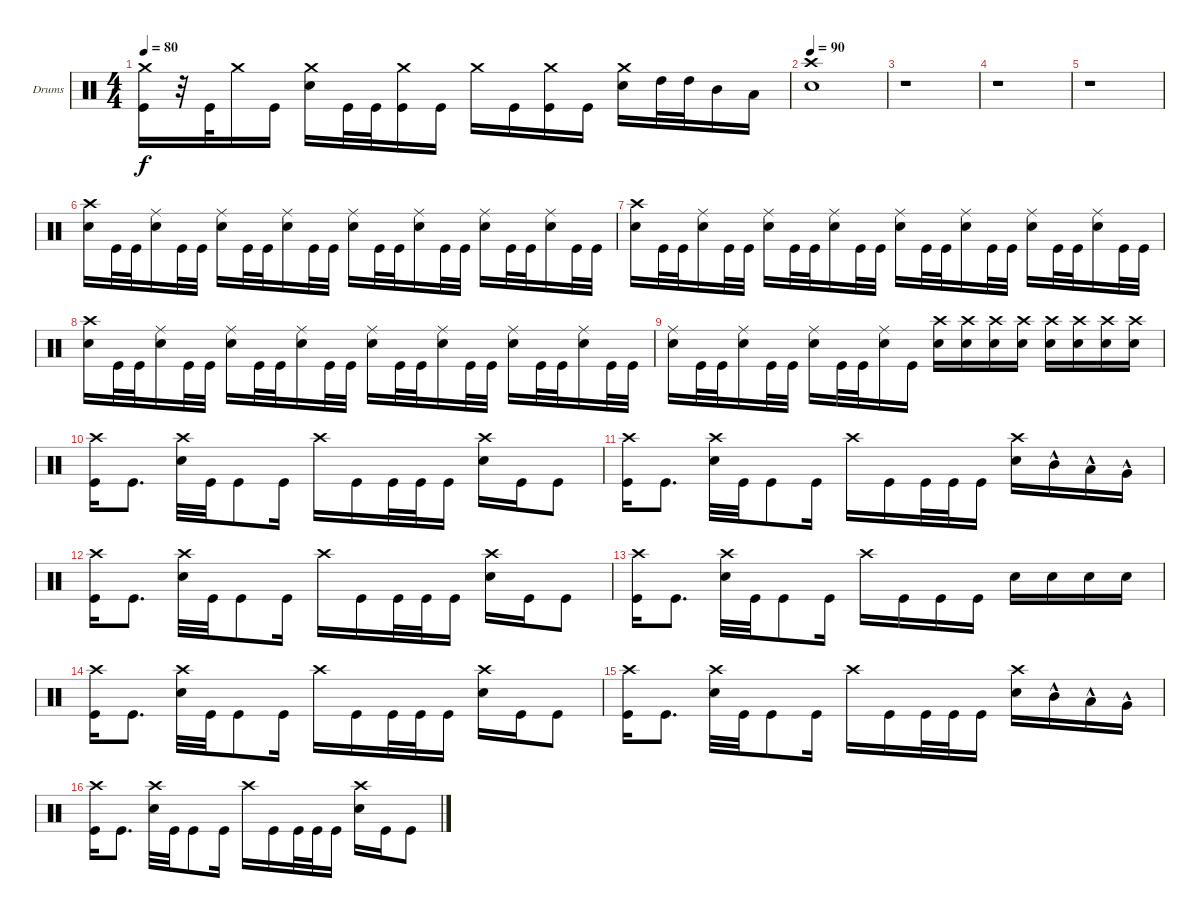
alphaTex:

\bracketExtendMode groupsimilarinstruments
\firstSystemTrackNameOrientation horizontal
\otherSystemsTrackNameOrientation horizontal
\track ("Emile Bardou" "Drums") {instrument percussion}
\staff {score}
\articulation defaults
\ts (4 4)
\tempo 80
\clef neutral
\scale
0.333333
\ks c
("Crash medium (hit)" "Kick (hit)").16{dy f} r.32 "Kick (hit)".32 "Crash medium (hit)".16 "Kick (hit)".16 ("Crash medium (hit)" "Snare (hit) 2").16 "Kick (hit)".32 "Kick (hit)".32 ("Crash medium (hit)" "Kick (hit)").16 "Kick (hit)".16 "Crash medium (hit)".16 "Kick (hit)".16 ("Crash medium (hit)" "Kick (hit)").16 "Kick (hit)".16 ("Crash medium (hit)" "Snare (hit) 2").16 "High Tom (hit)".32 "High Tom (hit)".32 "Mid Tom (hit)".16 "Low Tom (hit)".16 |
\tempo 90
\scale
0.333333 ("Snare (hit) 2" "Crash high (hit)").1 |
\scale
0.333333 r.1 |
\scale
0.333333 r.1 |
\scale
0.333333 r.1 |
\scale
0.333333 ("Crash high (hit)" "Snare (hit) 2").16 "Kick (hit)".32 "Kick (hit)".32 ("Snare (hit) 2" "Ride (middle)").16 "Kick (hit)".32 "Kick (hit)".32 ("Snare (hit) 2" "Ride (middle)").16 "Kick (hit)".32 "Kick (hit)".32 ("Snare (hit) 2" "Ride (middle)").16 "Kick (hit)".32 "Kick (hit)".32 ("Snare (hit) 2" "Ride (middle)").16 "Kick (hit)".32 "Kick (hit)".32 ("Snare (hit) 2" "Ride (middle)").16 "Kick (hit)".32 "Kick (hit)".32 ("Snare (hit) 2" "Ride (middle)").16 "Kick (hit)".32 "Kick (hit)".32 ("Snare (hit) 2" "Ride (middle)").16 "Kick (hit)".32 "Kick (hit)".32 |
\scale
0.333333 ("Crash high (hit)" "Snare (hit) 2").16 "Kick (hit)".32 "Kick (hit)".32 ("Snare (hit) 2" "Ride (middle)").16 "Kick (hit)".32 "Kick (hit)".32 ("Snare (hit) 2" "Ride (middle)").16 "Kick (hit)".32 "Kick (hit)".32 ("Snare (hit) 2" "Ride (middle)").16 "Kick (hit)".32 "Kick (hit)".32 ("Snare (hit) 2" "Ride (middle)").16 "Kick (hit)".32 "Kick (hit)".32 ("Snare (hit) 2" "Ride (middle)").16 "Kick (hit)".32 "Kick (hit)".32 ("Snare (hit) 2" "Ride (middle)").16 "Kick (hit)".32 "Kick (hit)".32 ("Snare (hit) 2" "Ride (middle)").16 "Kick (hit)".32 "Kick (hit)".32 |
\scale
0.333333 ("Crash high (hit)" "Snare (hit) 2").16 "Kick (hit)".32 "Kick (hit)".32 ("Snare (hit) 2" "Ride (middle)").16 "Kick (hit)".32 "Kick (hit)".32 ("Snare (hit) 2" "Ride (middle)").16 "Kick (hit)".32 "Kick (hit)".32 ("Snare (hit) 2" "Ride (middle)").16 "Kick (hit)".32 "Kick (hit)".32 ("Snare (hit) 2" "Ride (middle)").16 "Kick (hit)".32 "Kick (hit)".32 ("Snare (hit) 2" "Ride (middle)").16 "Kick (hit)".32 "Kick (hit)".32 ("Snare (hit) 2" "Ride (middle)").16 "Kick (hit)".32 "Kick (hit)".32 ("Snare (hit) 2" "Ride (middle)").16 "Kick (hit)".32 "Kick (hit)".32 |
\scale
0.333333 ("Snare (hit) 2" "Ride (middle)").16 "Kick (hit)".32 "Kick (hit)".32 ("Snare (hit) 2" "Ride (middle)").16 "Kick (hit)".32 "Kick (hit)".32 ("Snare (hit) 2" "Ride (middle)").16 "Kick (hit)".32 "Kick (hit)".32 ("Snare (hit) 2" "Ride (middle)").16 "Kick (hit)".16 ("Snare (hit) 2" "Crash high (hit)").16 ("Snare (hit) 2" "Crash high (hit)").16 ("Snare (hit) 2" "Crash high (hit)").16 ("Snare (hit) 2" "Crash high (hit)").16 ("Snare (hit) 2" "Crash high (hit)").16 ("Snare (hit) 2" "Crash high (hit)").16 ("Snare (hit) 2" "Crash high (hit)").16 ("Snare (hit) 2" "Crash high (hit)").16 |
\scale
0.333333 ("Kick (hit)" "Crash high (hit)").16 "Kick (hit)".8{d} ("Snare (hit) 2" "Crash high (hit)").32 "Kick (hit)".32 "Kick (hit)".8 "Kick (hit)".16 "Crash high (hit)".16 "Kick (hit)".16 "Kick (hit)".32 "Kick (hit)".32 "Kick (hit)".16 ("Snare (hit) 2" "Crash high (hit)").16 "Kick (hit)".16 "Kick (hit)".8 |
\scale
0.333333 ("Kick (hit)" "Crash high (hit)").16 "Kick (hit)".8{d} ("Snare (hit) 2" "Crash high (hit)").32 "Kick (hit)".32 "Kick (hit)".8 "Kick (hit)".16 "Crash high (hit)".16 "Kick (hit)".16 "Kick (hit)".32 "Kick (hit)".32 "Kick (hit)".16 ("Snare (hit) 2" "Crash high (hit)").16 "Mid Tom (hit)"{hac}.16 "Low Tom (hit)"{hac}.16 "Very Low Tom (hit)"{hac}.16 |
\scale
0.333333 ("Kick (hit)" "Crash high (hit)").16 "Kick (hit)".8{d} ("Snare (hit) 2" "Crash high (hit)").32 "Kick (hit)".32 "Kick (hit)".8 "Kick (hit)".16 "Crash high (hit)".16 "Kick (hit)".16 "Kick (hit)".32 "Kick (hit)".32 "Kick (hit)".16 ("Snare (hit) 2" "Crash high (hit)").16 "Kick (hit)".16 "Kick (hit)".8 |
\scale
0.333333 ("Kick (hit)" "Crash high (hit)").16 "Kick (hit)".8{d} ("Snare (hit) 2" "Crash high (hit)").32 "Kick (hit)".32 "Kick (hit)".8 "Kick (hit)".16 "Crash high (hit)".16 "Kick (hit)".16 "Kick (hit)".16 "Kick (hit)".16 "Snare (hit) 2".16 "Snare (hit) 2".16 "Snare (hit) 2".16 "Snare (hit) 2".16 |
\scale
0.333333 ("Kick (hit)" "Crash high (hit)").16 "Kick (hit)".8{d} ("Snare (hit) 2" "Crash high (hit)").32 "Kick (hit)".32 "Kick (hit)".8 "Kick (hit)".16 "Crash high (hit)".16 "Kick (hit)".16 "Kick (hit)".32 "Kick (hit)".32 "Kick (hit)".16 ("Snare (hit) 2" "Crash high (hit)").16 "Kick (hit)".16 "Kick (hit)".8 |
\scale
0.333333 ("Kick (hit)" "Crash high (hit)").16 "Kick (hit)".8{d} ("Snare (hit) 2" "Crash high (hit)").32 "Kick (hit)".32 "Kick (hit)".8 "Kick (hit)".16 "Crash high (hit)".16 "Kick (hit)".16 "Kick (hit)".32 "Kick (hit)".32 "Kick (hit)".16 ("Snare (hit) 2" "Crash high (hit)").16 "Mid Tom (hit)"{hac}.16 "Low Tom (hit)"{hac}.16 "Very Low Tom (hit)"{hac}.16 |
\scale
0.333333 ("Kick (hit)" "Crash high (hit)").16 "Kick (hit)".8{d} ("Snare (hit) 2" "Crash high (hit)").32 "Kick (hit)".32 "Kick (hit)".8 "Kick (hit)".16 "Crash high (hit)".16 "Kick (hit)".16 "Kick (hit)".32 "Kick (hit)".32 "Kick (hit)".16 ("Snare (hit) 2" "Crash high (hit)").16 "Kick (hit)".16 "Kick (hit)".8
